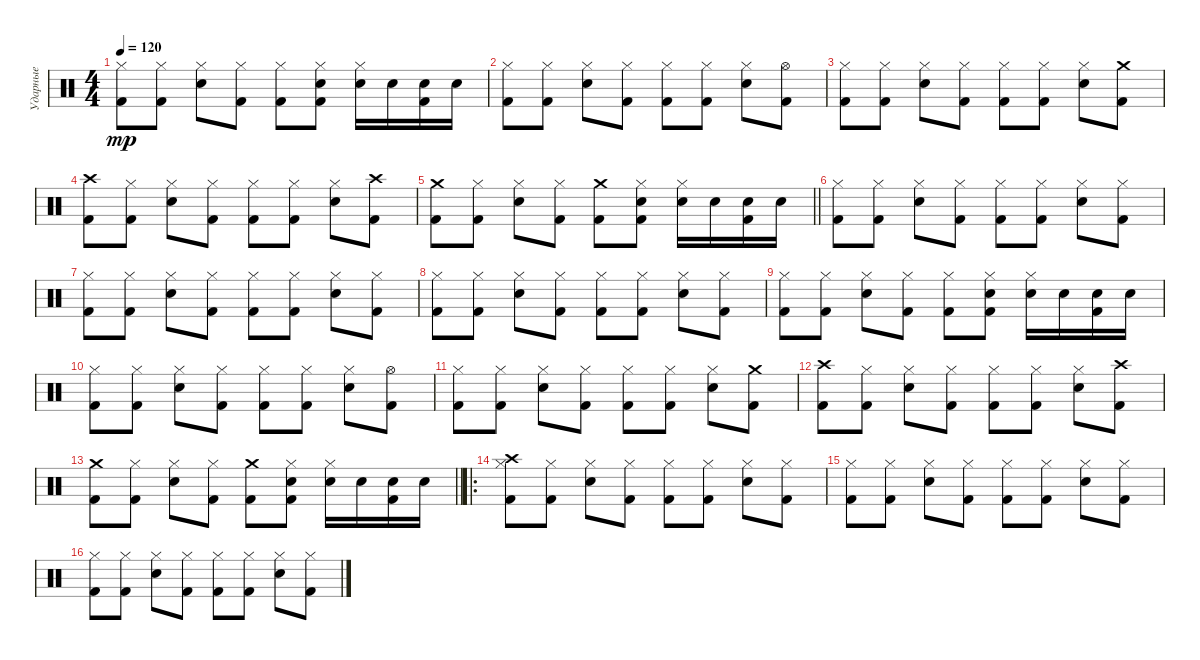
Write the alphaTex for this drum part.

\track ("Ударные" "Ударные") {instrument percussion}
\staff {score}
\articulation defaults
\ts (4 4)
\tempo 120
\clef neutral
\ks c
("Kick (hit) 2" "Hi-Hat (closed)").8{dy mp} ("Kick (hit) 2" "Hi-Hat (closed)").8 ("Snare (hit) 2" "Hi-Hat (closed)").8 ("Kick (hit) 2" "Hi-Hat (closed)").8 ("Kick (hit) 2" "Hi-Hat (closed)").8 ("Kick (hit) 2" "Snare (hit) 2" "Hi-Hat (closed)").8 ("Snare (hit) 2" "Hi-Hat (closed)").16 "Snare (hit) 2".16 ("Kick (hit) 2" "Snare (hit) 2").16 "Snare (hit) 2".16 |
("Kick (hit) 2" "Hi-Hat (closed)").8 ("Kick (hit) 2" "Hi-Hat (closed)").8 ("Snare (hit) 2" "Hi-Hat (closed)").8 ("Kick (hit) 2" "Hi-Hat (closed)").8 ("Kick (hit) 2" "Hi-Hat (closed)").8 ("Kick (hit) 2" "Hi-Hat (closed)").8 ("Snare (hit) 2" "Hi-Hat (closed)").8 ("Kick (hit) 2" "Hi-Hat (open)").8 |
("Kick (hit) 2" "Hi-Hat (closed)").8 ("Kick (hit) 2" "Hi-Hat (closed)").8 ("Snare (hit) 2" "Hi-Hat (closed)").8 ("Kick (hit) 2" "Hi-Hat (closed)").8 ("Kick (hit) 2" "Hi-Hat (closed)").8 ("Kick (hit) 2" "Hi-Hat (closed)").8 ("Snare (hit) 2" "Hi-Hat (closed)").8 ("Kick (hit) 2" "Crash medium (hit)").8 |
("Kick (hit) 2" "Crash high (hit)").8 ("Kick (hit) 2" "Hi-Hat (closed)").8 ("Snare (hit) 2" "Hi-Hat (closed)").8 ("Kick (hit) 2" "Hi-Hat (closed)").8 ("Kick (hit) 2" "Hi-Hat (closed)").8 ("Kick (hit) 2" "Hi-Hat (closed)").8 ("Snare (hit) 2" "Hi-Hat (closed)").8 ("Kick (hit) 2" "Crash high (hit)").8 |
\barLineRight lightlight
("Kick (hit) 2" "Crash medium (hit)").8 ("Kick (hit) 2" "Hi-Hat (closed)").8 ("Snare (hit) 2" "Hi-Hat (closed)").8 ("Kick (hit) 2" "Hi-Hat (closed)").8 ("Kick (hit) 2" "Crash medium (hit)").8 ("Kick (hit) 2" "Snare (hit) 2" "Hi-Hat (closed)").8 ("Snare (hit) 2" "Hi-Hat (closed)").16 "Snare (hit) 2".16 ("Kick (hit) 2" "Snare (hit) 2").16 "Snare (hit) 2".16 |
("Kick (hit) 2" "Hi-Hat (closed)").8 ("Kick (hit) 2" "Hi-Hat (closed)").8 ("Snare (hit) 2" "Hi-Hat (closed)").8 ("Kick (hit) 2" "Hi-Hat (closed)").8 ("Kick (hit) 2" "Hi-Hat (closed)").8 ("Kick (hit) 2" "Hi-Hat (closed)").8 ("Snare (hit) 2" "Hi-Hat (closed)").8 ("Kick (hit) 2" "Hi-Hat (closed)").8 |
("Kick (hit) 2" "Hi-Hat (closed)").8 ("Kick (hit) 2" "Hi-Hat (closed)").8 ("Snare (hit) 2" "Hi-Hat (closed)").8 ("Kick (hit) 2" "Hi-Hat (closed)").8 ("Kick (hit) 2" "Hi-Hat (closed)").8 ("Kick (hit) 2" "Hi-Hat (closed)").8 ("Snare (hit) 2" "Hi-Hat (closed)").8 ("Kick (hit) 2" "Hi-Hat (closed)").8 |
("Kick (hit) 2" "Hi-Hat (closed)").8 ("Kick (hit) 2" "Hi-Hat (closed)").8 ("Snare (hit) 2" "Hi-Hat (closed)").8 ("Kick (hit) 2" "Hi-Hat (closed)").8 ("Kick (hit) 2" "Hi-Hat (closed)").8 ("Kick (hit) 2" "Hi-Hat (closed)").8 ("Snare (hit) 2" "Hi-Hat (closed)").8 ("Kick (hit) 2" "Hi-Hat (closed)").8 |
("Kick (hit) 2" "Hi-Hat (closed)").8 ("Kick (hit) 2" "Hi-Hat (closed)").8 ("Snare (hit) 2" "Hi-Hat (closed)").8 ("Kick (hit) 2" "Hi-Hat (closed)").8 ("Kick (hit) 2" "Hi-Hat (closed)").8 ("Kick (hit) 2" "Snare (hit) 2" "Hi-Hat (closed)").8 ("Snare (hit) 2" "Hi-Hat (closed)").16 "Snare (hit) 2".16 ("Kick (hit) 2" "Snare (hit) 2").16 "Snare (hit) 2".16 |
("Kick (hit) 2" "Hi-Hat (closed)").8 ("Kick (hit) 2" "Hi-Hat (closed)").8 ("Snare (hit) 2" "Hi-Hat (closed)").8 ("Kick (hit) 2" "Hi-Hat (closed)").8 ("Kick (hit) 2" "Hi-Hat (closed)").8 ("Kick (hit) 2" "Hi-Hat (closed)").8 ("Snare (hit) 2" "Hi-Hat (closed)").8 ("Kick (hit) 2" "Hi-Hat (open)").8 |
("Kick (hit) 2" "Hi-Hat (closed)").8 ("Kick (hit) 2" "Hi-Hat (closed)").8 ("Snare (hit) 2" "Hi-Hat (closed)").8 ("Kick (hit) 2" "Hi-Hat (closed)").8 ("Kick (hit) 2" "Hi-Hat (closed)").8 ("Kick (hit) 2" "Hi-Hat (closed)").8 ("Snare (hit) 2" "Hi-Hat (closed)").8 ("Kick (hit) 2" "Crash medium (hit)").8 |
("Kick (hit) 2" "Crash high (hit)").8 ("Kick (hit) 2" "Hi-Hat (closed)").8 ("Snare (hit) 2" "Hi-Hat (closed)").8 ("Kick (hit) 2" "Hi-Hat (closed)").8 ("Kick (hit) 2" "Hi-Hat (closed)").8 ("Kick (hit) 2" "Hi-Hat (closed)").8 ("Snare (hit) 2" "Hi-Hat (closed)").8 ("Kick (hit) 2" "Crash high (hit)").8 |
\barLineRight lightlight
("Kick (hit) 2" "Crash medium (hit)").8 ("Kick (hit) 2" "Hi-Hat (closed)").8 ("Snare (hit) 2" "Hi-Hat (closed)").8 ("Kick (hit) 2" "Hi-Hat (closed)").8 ("Kick (hit) 2" "Crash medium (hit)").8 ("Kick (hit) 2" "Snare (hit) 2" "Hi-Hat (closed)").8 ("Snare (hit) 2" "Hi-Hat (closed)").16 "Snare (hit) 2".16 ("Kick (hit) 2" "Snare (hit) 2").16 "Snare (hit) 2".16 |
\ro
("Kick (hit) 2" "Hi-Hat (closed)" "Crash high (hit)").8 ("Kick (hit) 2" "Hi-Hat (closed)").8 ("Snare (hit) 2" "Hi-Hat (closed)").8 ("Kick (hit) 2" "Hi-Hat (closed)").8 ("Kick (hit) 2" "Hi-Hat (closed)").8 ("Kick (hit) 2" "Hi-Hat (closed)").8 ("Snare (hit) 2" "Hi-Hat (closed)").8 ("Kick (hit) 2" "Hi-Hat (closed)").8 |
("Kick (hit) 2" "Hi-Hat (closed)").8 ("Kick (hit) 2" "Hi-Hat (closed)").8 ("Snare (hit) 2" "Hi-Hat (closed)").8 ("Kick (hit) 2" "Hi-Hat (closed)").8 ("Kick (hit) 2" "Hi-Hat (closed)").8 ("Kick (hit) 2" "Hi-Hat (closed)").8 ("Snare (hit) 2" "Hi-Hat (closed)").8 ("Kick (hit) 2" "Hi-Hat (closed)").8 |
("Kick (hit) 2" "Hi-Hat (closed)").8 ("Kick (hit) 2" "Hi-Hat (closed)").8 ("Snare (hit) 2" "Hi-Hat (closed)").8 ("Kick (hit) 2" "Hi-Hat (closed)").8 ("Kick (hit) 2" "Hi-Hat (closed)").8 ("Kick (hit) 2" "Hi-Hat (closed)").8 ("Snare (hit) 2" "Hi-Hat (closed)").8 ("Kick (hit) 2" "Hi-Hat (closed)").8
